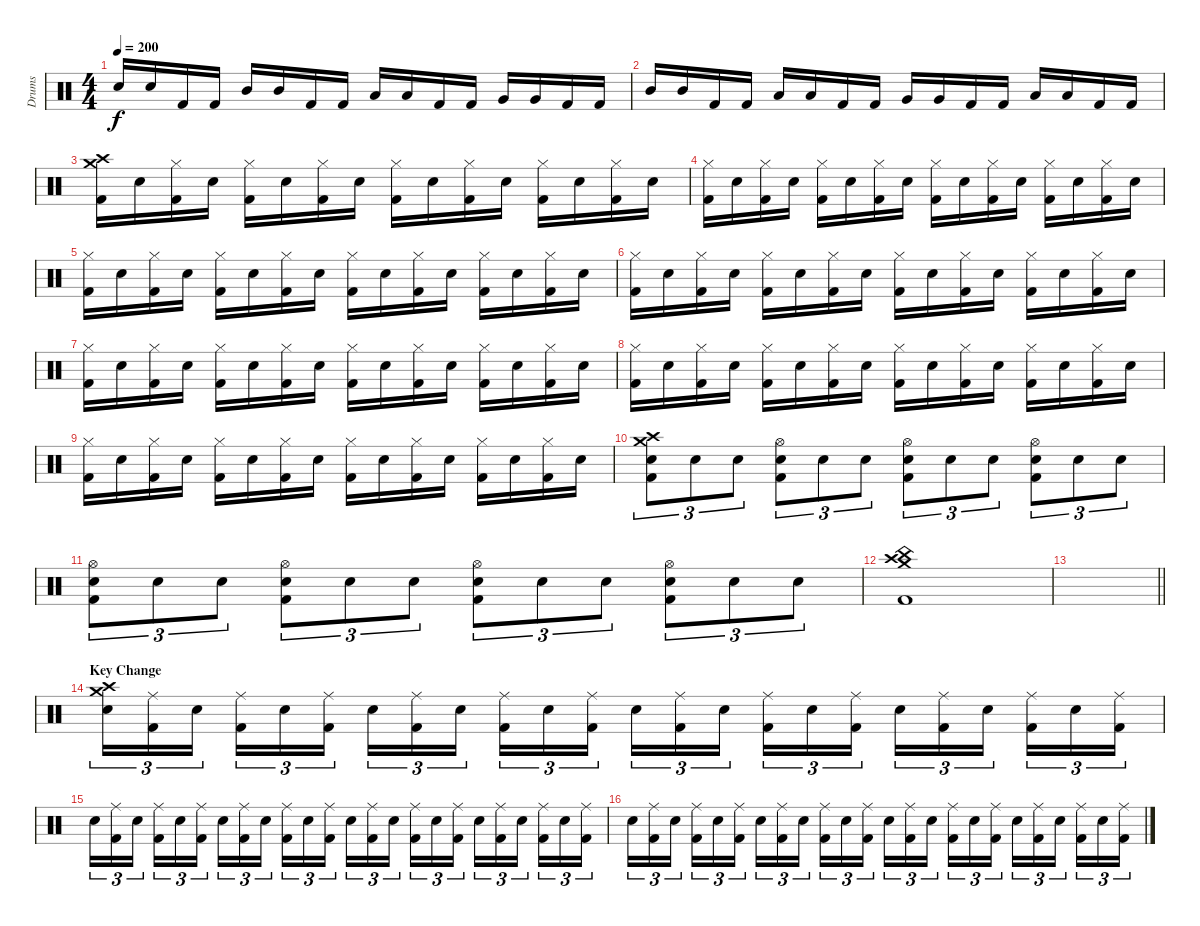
\track ("Drums" "Drums") {instrument percussion}
\staff {score}
\articulation defaults
\ts (4 4)
\tempo 200
\clef neutral
\ks c "Electric Snare (hit)".16{dy f} "Electric Snare (hit)".16 "Kick (hit) 2".16 "Kick (hit) 2".16 "Mid Tom (hit)".16 "Mid Tom (hit)".16 "Kick (hit) 2".16 "Kick (hit) 2".16 "Low Tom (hit)".16 "Low Tom (hit)".16 "Kick (hit) 2".16 "Kick (hit) 2".16 "Very Low Tom (hit)".16 "Very Low Tom (hit)".16 "Kick (hit) 2".16 "Kick (hit) 2".16
|
"Mid Tom (hit)".16 "Mid Tom (hit)".16 "Kick (hit) 2".16 "Kick (hit) 2".16 "Low Tom (hit)".16 "Low Tom (hit)".16 "Kick (hit) 2".16 "Kick (hit) 2".16 "Very Low Tom (hit)".16 "Very Low Tom (hit)".16 "Kick (hit) 2".16 "Kick (hit) 2".16 "Low Floor Tom (hit)".16 "Low Floor Tom (hit)".16 "Kick (hit) 2".16 "Kick (hit) 2".16 |
("Crash high (hit)" "Crash medium (hit)" "Kick (hit) 2").16 "Electric Snare (hit)".16 ("Hi-Hat (closed)" "Kick (hit) 2").16 "Electric Snare (hit)".16 ("Hi-Hat (closed)" "Kick (hit) 2").16 "Electric Snare (hit)".16 ("Hi-Hat (closed)" "Kick (hit) 2").16 "Electric Snare (hit)".16 ("Hi-Hat (closed)" "Kick (hit) 2").16 "Electric Snare (hit)".16 ("Hi-Hat (closed)" "Kick (hit) 2").16 "Electric Snare (hit)".16 ("Hi-Hat (closed)" "Kick (hit) 2").16 "Electric Snare (hit)".16 ("Hi-Hat (closed)" "Kick (hit) 2").16 "Electric Snare (hit)".16 |
("Hi-Hat (closed)" "Kick (hit) 2").16 "Electric Snare (hit)".16 ("Hi-Hat (closed)" "Kick (hit) 2").16 "Electric Snare (hit)".16 ("Hi-Hat (closed)" "Kick (hit) 2").16 "Electric Snare (hit)".16 ("Hi-Hat (closed)" "Kick (hit) 2").16 "Electric Snare (hit)".16 ("Hi-Hat (closed)" "Kick (hit) 2").16 "Electric Snare (hit)".16 ("Hi-Hat (closed)" "Kick (hit) 2").16 "Electric Snare (hit)".16 ("Hi-Hat (closed)" "Kick (hit) 2").16 "Electric Snare (hit)".16 ("Hi-Hat (closed)" "Kick (hit) 2").16 "Electric Snare (hit)".16 |
("Hi-Hat (closed)" "Kick (hit) 2").16 "Electric Snare (hit)".16 ("Hi-Hat (closed)" "Kick (hit) 2").16 "Electric Snare (hit)".16 ("Hi-Hat (closed)" "Kick (hit) 2").16 "Electric Snare (hit)".16 ("Hi-Hat (closed)" "Kick (hit) 2").16 "Electric Snare (hit)".16 ("Hi-Hat (closed)" "Kick (hit) 2").16 "Electric Snare (hit)".16 ("Hi-Hat (closed)" "Kick (hit) 2").16 "Electric Snare (hit)".16 ("Hi-Hat (closed)" "Kick (hit) 2").16 "Electric Snare (hit)".16 ("Hi-Hat (closed)" "Kick (hit) 2").16 "Electric Snare (hit)".16 |
("Hi-Hat (closed)" "Kick (hit) 2").16 "Electric Snare (hit)".16 ("Hi-Hat (closed)" "Kick (hit) 2").16 "Electric Snare (hit)".16 ("Hi-Hat (closed)" "Kick (hit) 2").16 "Electric Snare (hit)".16 ("Hi-Hat (closed)" "Kick (hit) 2").16 "Electric Snare (hit)".16 ("Hi-Hat (closed)" "Kick (hit) 2").16 "Electric Snare (hit)".16 ("Hi-Hat (closed)" "Kick (hit) 2").16 "Electric Snare (hit)".16 ("Hi-Hat (closed)" "Kick (hit) 2").16 "Electric Snare (hit)".16 ("Hi-Hat (closed)" "Kick (hit) 2").16 "Electric Snare (hit)".16 |
("Hi-Hat (closed)" "Kick (hit) 2").16 "Electric Snare (hit)".16 ("Hi-Hat (closed)" "Kick (hit) 2").16 "Electric Snare (hit)".16 ("Hi-Hat (closed)" "Kick (hit) 2").16 "Electric Snare (hit)".16 ("Hi-Hat (closed)" "Kick (hit) 2").16 "Electric Snare (hit)".16 ("Hi-Hat (closed)" "Kick (hit) 2").16 "Electric Snare (hit)".16 ("Hi-Hat (closed)" "Kick (hit) 2").16 "Electric Snare (hit)".16 ("Hi-Hat (closed)" "Kick (hit) 2").16 "Electric Snare (hit)".16 ("Hi-Hat (closed)" "Kick (hit) 2").16 "Electric Snare (hit)".16 |
("Hi-Hat (closed)" "Kick (hit) 2").16 "Electric Snare (hit)".16 ("Hi-Hat (closed)" "Kick (hit) 2").16 "Electric Snare (hit)".16 ("Hi-Hat (closed)" "Kick (hit) 2").16 "Electric Snare (hit)".16 ("Hi-Hat (closed)" "Kick (hit) 2").16 "Electric Snare (hit)".16 ("Hi-Hat (closed)" "Kick (hit) 2").16 "Electric Snare (hit)".16 ("Hi-Hat (closed)" "Kick (hit) 2").16 "Electric Snare (hit)".16 ("Hi-Hat (closed)" "Kick (hit) 2").16 "Electric Snare (hit)".16 ("Hi-Hat (closed)" "Kick (hit) 2").16 "Electric Snare (hit)".16 |
("Hi-Hat (closed)" "Kick (hit) 2").16 "Electric Snare (hit)".16 ("Hi-Hat (closed)" "Kick (hit) 2").16 "Electric Snare (hit)".16 ("Hi-Hat (closed)" "Kick (hit) 2").16 "Electric Snare (hit)".16 ("Hi-Hat (closed)" "Kick (hit) 2").16 "Electric Snare (hit)".16 ("Hi-Hat (closed)" "Kick (hit) 2").16 "Electric Snare (hit)".16 ("Hi-Hat (closed)" "Kick (hit) 2").16 "Electric Snare (hit)".16 ("Hi-Hat (closed)" "Kick (hit) 2").16 "Electric Snare (hit)".16 ("Hi-Hat (closed)" "Kick (hit) 2").16 "Electric Snare (hit)".16 |
("Crash high (hit)" "Crash medium (hit)" "Electric Snare (hit)" "Kick (hit) 2").8{tu (3 2)} "Electric Snare (hit)".8{tu (3 2)} "Electric Snare (hit)".8{tu (3 2)} ("Hi-Hat (open)" "Electric Snare (hit)" "Kick (hit) 2").8{tu (3 2)} "Electric Snare (hit)".8{tu (3 2)} "Electric Snare (hit)".8{tu (3 2)} ("Hi-Hat (open)" "Electric Snare (hit)" "Kick (hit) 2").8{tu (3 2)} "Electric Snare (hit)".8{tu (3 2)} "Electric Snare (hit)".8{tu (3 2)} ("Hi-Hat (open)" "Electric Snare (hit)" "Kick (hit) 2").8{tu (3 2)} "Electric Snare (hit)".8{tu (3 2)} "Electric Snare (hit)".8{tu (3 2)} |
("Hi-Hat (open)" "Electric Snare (hit)" "Kick (hit) 2").8{tu (3 2)} "Electric Snare (hit)".8{tu (3 2)} "Electric Snare (hit)".8{tu (3 2)} ("Hi-Hat (open)" "Electric Snare (hit)" "Kick (hit) 2").8{tu (3 2)} "Electric Snare (hit)".8{tu (3 2)} "Electric Snare (hit)".8{tu (3 2)} ("Hi-Hat (open)" "Electric Snare (hit)" "Kick (hit) 2").8{tu (3 2)} "Electric Snare (hit)".8{tu (3 2)} "Electric Snare (hit)".8{tu (3 2)} ("Hi-Hat (open)" "Electric Snare (hit)" "Kick (hit) 2").8{tu (3 2)} "Electric Snare (hit)".8{tu (3 2)} "Electric Snare (hit)".8{tu (3 2)} |
("Crash high (hit)" "China (hit)" "Crash medium (hit)" "Kick (hit) 2").1 |
\barLineRight lightlight
|
\section ("" "Key Change")
("Crash high (hit)" "Crash medium (hit)" "Electric Snare (hit)").16{tu (3 2)} ("Ride (middle)" "Kick (hit) 2").16{tu (3 2)} "Electric Snare (hit)".16{tu (3 2) beam splitsecondary} ("Ride (middle)" "Kick (hit) 2").16{tu (3 2)} "Electric Snare (hit)".16{tu (3 2)} ("Ride (middle)" "Kick (hit) 2").16{tu (3 2)} "Electric Snare (hit)".16{tu (3 2)} ("Ride (middle)" "Kick (hit) 2").16{tu (3 2)} "Electric Snare (hit)".16{tu (3 2) beam splitsecondary} ("Ride (middle)" "Kick (hit) 2").16{tu (3 2)} "Electric Snare (hit)".16{tu (3 2)} ("Ride (middle)" "Kick (hit) 2").16{tu (3 2)} "Electric Snare (hit)".16{tu (3 2)} ("Ride (middle)" "Kick (hit) 2").16{tu (3 2)} "Electric Snare (hit)".16{tu (3 2) beam splitsecondary} ("Ride (middle)" "Kick (hit) 2").16{tu (3 2)} "Electric Snare (hit)".16{tu (3 2)} ("Ride (middle)" "Kick (hit) 2").16{tu (3 2)} "Electric Snare (hit)".16{tu (3 2)} ("Ride (middle)" "Kick (hit) 2").16{tu (3 2)} "Electric Snare (hit)".16{tu (3 2) beam splitsecondary} ("Ride (middle)" "Kick (hit) 2").16{tu (3 2)} "Electric Snare (hit)".16{tu (3 2)} ("Ride (middle)" "Kick (hit) 2").16{tu (3 2)} |
"Electric Snare (hit)".16{tu (3 2)} ("Ride (middle)" "Kick (hit) 2").16{tu (3 2)} "Electric Snare (hit)".16{tu (3 2) beam splitsecondary} ("Ride (middle)" "Kick (hit) 2").16{tu (3 2)} "Electric Snare (hit)".16{tu (3 2)} ("Ride (middle)" "Kick (hit) 2").16{tu (3 2)} "Electric Snare (hit)".16{tu (3 2)} ("Ride (middle)" "Kick (hit) 2").16{tu (3 2)} "Electric Snare (hit)".16{tu (3 2) beam splitsecondary} ("Ride (middle)" "Kick (hit) 2").16{tu (3 2)} "Electric Snare (hit)".16{tu (3 2)} ("Ride (middle)" "Kick (hit) 2").16{tu (3 2)} "Electric Snare (hit)".16{tu (3 2)} ("Ride (middle)" "Kick (hit) 2").16{tu (3 2)} "Electric Snare (hit)".16{tu (3 2) beam splitsecondary} ("Ride (middle)" "Kick (hit) 2").16{tu (3 2)} "Electric Snare (hit)".16{tu (3 2)} ("Ride (middle)" "Kick (hit) 2").16{tu (3 2)} "Electric Snare (hit)".16{tu (3 2)} ("Ride (middle)" "Kick (hit) 2").16{tu (3 2)} "Electric Snare (hit)".16{tu (3 2) beam splitsecondary} ("Ride (middle)" "Kick (hit) 2").16{tu (3 2)} "Electric Snare (hit)".16{tu (3 2)} ("Ride (middle)" "Kick (hit) 2").16{tu (3 2)} |
"Electric Snare (hit)".16{tu (3 2)} ("Ride (middle)" "Kick (hit) 2").16{tu (3 2)} "Electric Snare (hit)".16{tu (3 2) beam splitsecondary} ("Ride (middle)" "Kick (hit) 2").16{tu (3 2)} "Electric Snare (hit)".16{tu (3 2)} ("Ride (middle)" "Kick (hit) 2").16{tu (3 2)} "Electric Snare (hit)".16{tu (3 2)} ("Ride (middle)" "Kick (hit) 2").16{tu (3 2)} "Electric Snare (hit)".16{tu (3 2) beam splitsecondary} ("Ride (middle)" "Kick (hit) 2").16{tu (3 2)} "Electric Snare (hit)".16{tu (3 2)} ("Ride (middle)" "Kick (hit) 2").16{tu (3 2)} "Electric Snare (hit)".16{tu (3 2)} ("Ride (middle)" "Kick (hit) 2").16{tu (3 2)} "Electric Snare (hit)".16{tu (3 2) beam splitsecondary} ("Ride (middle)" "Kick (hit) 2").16{tu (3 2)} "Electric Snare (hit)".16{tu (3 2)} ("Ride (middle)" "Kick (hit) 2").16{tu (3 2)} "Electric Snare (hit)".16{tu (3 2)} ("Ride (middle)" "Kick (hit) 2").16{tu (3 2)} "Electric Snare (hit)".16{tu (3 2) beam splitsecondary} ("Ride (middle)" "Kick (hit) 2").16{tu (3 2)} "Electric Snare (hit)".16{tu (3 2)} ("Ride (middle)" "Kick (hit) 2").16{tu (3 2)}
